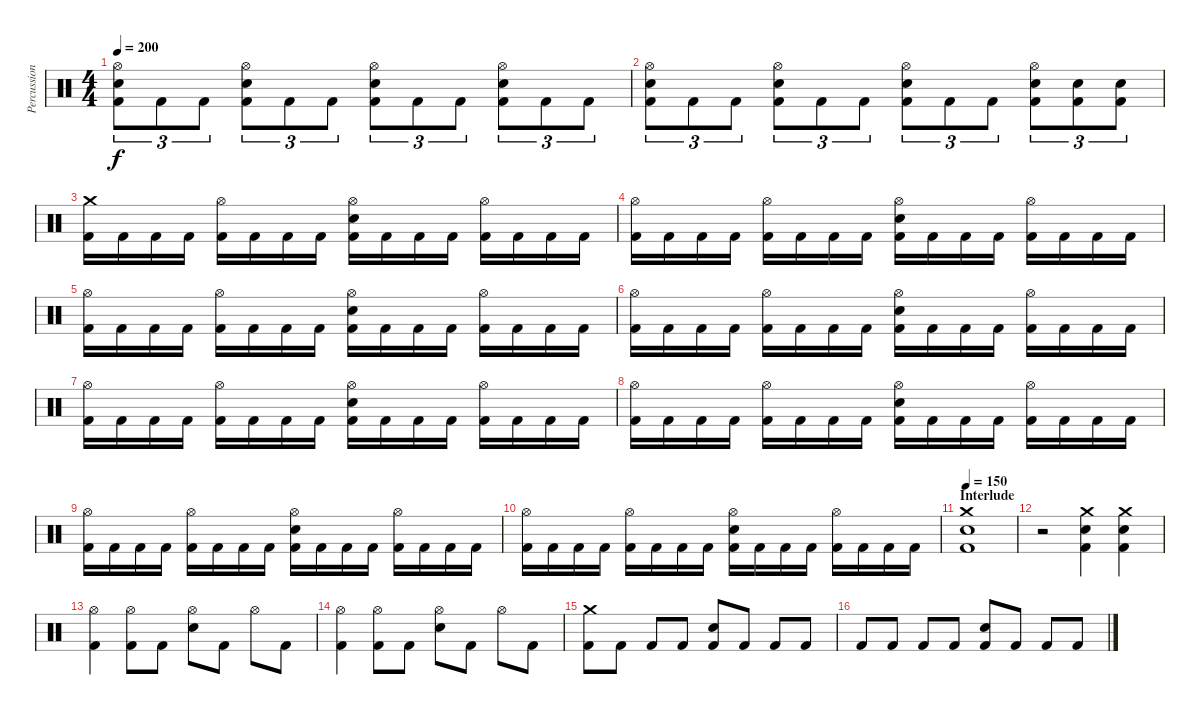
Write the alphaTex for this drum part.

\track ("Percussion" "Percussion") {instrument percussion}
\staff {score}
\articulation defaults
\ts (4 4)
\tempo 200
\clef neutral
\ks c
("Hi-Hat (open)" "Electric Snare (hit)" "Kick (hit) 2").8{tu (3 2) dy f} "Kick (hit) 2".8{tu (3 2)} "Kick (hit) 2".8{tu (3 2)} ("Hi-Hat (open)" "Electric Snare (hit)" "Kick (hit) 2").8{tu (3 2)} "Kick (hit) 2".8{tu (3 2)} "Kick (hit) 2".8{tu (3 2)} ("Hi-Hat (open)" "Electric Snare (hit)" "Kick (hit) 2").8{tu (3 2)} "Kick (hit) 2".8{tu (3 2)} "Kick (hit) 2".8{tu (3 2)} ("Hi-Hat (open)" "Electric Snare (hit)" "Kick (hit) 2").8{tu (3 2)} "Kick (hit) 2".8{tu (3 2)} "Kick (hit) 2".8{tu (3 2)} |
("Hi-Hat (open)" "Electric Snare (hit)" "Kick (hit) 2").8{tu (3 2)} "Kick (hit) 2".8{tu (3 2)} "Kick (hit) 2".8{tu (3 2)} ("Hi-Hat (open)" "Electric Snare (hit)" "Kick (hit) 2").8{tu (3 2)} "Kick (hit) 2".8{tu (3 2)} "Kick (hit) 2".8{tu (3 2)} ("Hi-Hat (open)" "Electric Snare (hit)" "Kick (hit) 2").8{tu (3 2)} "Kick (hit) 2".8{tu (3 2)} "Kick (hit) 2".8{tu (3 2)} ("Hi-Hat (open)" "Electric Snare (hit)" "Kick (hit) 2").8{tu (3 2)} ("Electric Snare (hit)" "Kick (hit) 2").8{tu (3 2)} ("Electric Snare (hit)" "Kick (hit) 2").8{tu (3 2)} |
("Crash medium (hit)" "Kick (hit) 2").16 "Kick (hit) 2".16 "Kick (hit) 2".16 "Kick (hit) 2".16 ("Hi-Hat (open)" "Kick (hit) 2").16 "Kick (hit) 2".16 "Kick (hit) 2".16 "Kick (hit) 2".16 ("Hi-Hat (open)" "Electric Snare (hit)" "Kick (hit) 2").16 "Kick (hit) 2".16 "Kick (hit) 2".16 "Kick (hit) 2".16 ("Hi-Hat (open)" "Kick (hit) 2").16 "Kick (hit) 2".16 "Kick (hit) 2".16 "Kick (hit) 2".16 |
("Hi-Hat (open)" "Kick (hit) 2").16 "Kick (hit) 2".16 "Kick (hit) 2".16 "Kick (hit) 2".16 ("Hi-Hat (open)" "Kick (hit) 2").16 "Kick (hit) 2".16 "Kick (hit) 2".16 "Kick (hit) 2".16 ("Hi-Hat (open)" "Electric Snare (hit)" "Kick (hit) 2").16 "Kick (hit) 2".16 "Kick (hit) 2".16 "Kick (hit) 2".16 ("Hi-Hat (open)" "Kick (hit) 2").16 "Kick (hit) 2".16 "Kick (hit) 2".16 "Kick (hit) 2".16 |
("Hi-Hat (open)" "Kick (hit) 2").16 "Kick (hit) 2".16 "Kick (hit) 2".16 "Kick (hit) 2".16 ("Hi-Hat (open)" "Kick (hit) 2").16 "Kick (hit) 2".16 "Kick (hit) 2".16 "Kick (hit) 2".16 ("Hi-Hat (open)" "Electric Snare (hit)" "Kick (hit) 2").16 "Kick (hit) 2".16 "Kick (hit) 2".16 "Kick (hit) 2".16 ("Hi-Hat (open)" "Kick (hit) 2").16 "Kick (hit) 2".16 "Kick (hit) 2".16 "Kick (hit) 2".16 |
("Hi-Hat (open)" "Kick (hit) 2").16 "Kick (hit) 2".16 "Kick (hit) 2".16 "Kick (hit) 2".16 ("Hi-Hat (open)" "Kick (hit) 2").16 "Kick (hit) 2".16 "Kick (hit) 2".16 "Kick (hit) 2".16 ("Hi-Hat (open)" "Electric Snare (hit)" "Kick (hit) 2").16 "Kick (hit) 2".16 "Kick (hit) 2".16 "Kick (hit) 2".16 ("Hi-Hat (open)" "Kick (hit) 2").16 "Kick (hit) 2".16 "Kick (hit) 2".16 "Kick (hit) 2".16 |
("Hi-Hat (open)" "Kick (hit) 2").16 "Kick (hit) 2".16 "Kick (hit) 2".16 "Kick (hit) 2".16 ("Hi-Hat (open)" "Kick (hit) 2").16 "Kick (hit) 2".16 "Kick (hit) 2".16 "Kick (hit) 2".16 ("Hi-Hat (open)" "Electric Snare (hit)" "Kick (hit) 2").16 "Kick (hit) 2".16 "Kick (hit) 2".16 "Kick (hit) 2".16 ("Hi-Hat (open)" "Kick (hit) 2").16 "Kick (hit) 2".16 "Kick (hit) 2".16 "Kick (hit) 2".16 |
("Hi-Hat (open)" "Kick (hit) 2").16 "Kick (hit) 2".16 "Kick (hit) 2".16 "Kick (hit) 2".16 ("Hi-Hat (open)" "Kick (hit) 2").16 "Kick (hit) 2".16 "Kick (hit) 2".16 "Kick (hit) 2".16 ("Hi-Hat (open)" "Electric Snare (hit)" "Kick (hit) 2").16 "Kick (hit) 2".16 "Kick (hit) 2".16 "Kick (hit) 2".16 ("Hi-Hat (open)" "Kick (hit) 2").16 "Kick (hit) 2".16 "Kick (hit) 2".16 "Kick (hit) 2".16 |
("Hi-Hat (open)" "Kick (hit) 2").16 "Kick (hit) 2".16 "Kick (hit) 2".16 "Kick (hit) 2".16 ("Hi-Hat (open)" "Kick (hit) 2").16 "Kick (hit) 2".16 "Kick (hit) 2".16 "Kick (hit) 2".16 ("Hi-Hat (open)" "Electric Snare (hit)" "Kick (hit) 2").16 "Kick (hit) 2".16 "Kick (hit) 2".16 "Kick (hit) 2".16 ("Hi-Hat (open)" "Kick (hit) 2").16 "Kick (hit) 2".16 "Kick (hit) 2".16 "Kick (hit) 2".16 |
("Hi-Hat (open)" "Kick (hit) 2").16 "Kick (hit) 2".16 "Kick (hit) 2".16 "Kick (hit) 2".16 ("Hi-Hat (open)" "Kick (hit) 2").16 "Kick (hit) 2".16 "Kick (hit) 2".16 "Kick (hit) 2".16 ("Hi-Hat (open)" "Electric Snare (hit)" "Kick (hit) 2").16 "Kick (hit) 2".16 "Kick (hit) 2".16 "Kick (hit) 2".16 ("Hi-Hat (open)" "Kick (hit) 2").16 "Kick (hit) 2".16 "Kick (hit) 2".16 "Kick (hit) 2".16 |
\section ("" "Interlude")
\tempo 150
("Crash medium (hit)" "Electric Snare (hit)" "Kick (hit) 2").1 |
r.2 ("Crash medium (hit)" "Electric Snare (hit)" "Kick (hit) 2").4 ("Crash medium (hit)" "Electric Snare (hit)" "Kick (hit) 2").4 |
("Hi-Hat (open)" "Kick (hit) 2").4 ("Hi-Hat (open)" "Kick (hit) 2").8 "Kick (hit) 2".8 ("Hi-Hat (open)" "Electric Snare (hit)").8 "Kick (hit) 2".8 "Hi-Hat (open)".8 "Kick (hit) 2".8 |
("Hi-Hat (open)" "Kick (hit) 2").4 ("Hi-Hat (open)" "Kick (hit) 2").8 "Kick (hit) 2".8 ("Hi-Hat (open)" "Electric Snare (hit)").8 "Kick (hit) 2".8 "Hi-Hat (open)".8 "Kick (hit) 2".8 |
("Crash medium (hit)" "Kick (hit) 2").8 "Kick (hit) 2".8 "Kick (hit) 2".8 "Kick (hit) 2".8 ("Electric Snare (hit)" "Kick (hit) 2").8 "Kick (hit) 2".8 "Kick (hit) 2".8 "Kick (hit) 2".8 |
"Kick (hit) 2".8 "Kick (hit) 2".8 "Kick (hit) 2".8 "Kick (hit) 2".8 ("Electric Snare (hit)" "Kick (hit) 2").8 "Kick (hit) 2".8 "Kick (hit) 2".8 "Kick (hit) 2".8
